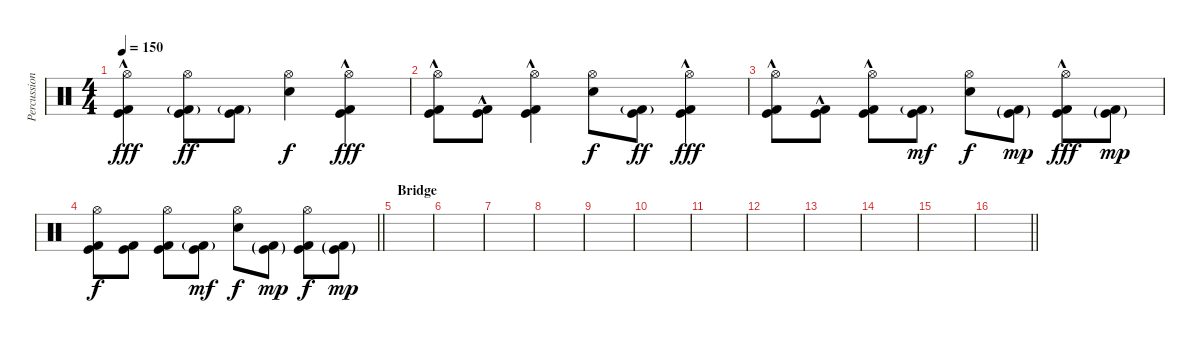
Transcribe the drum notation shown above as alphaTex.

\track ("Percussion" "Percussion") {instrument percussion}
\staff {score}
\articulation defaults
\ts (4 4)
\tempo 150
\clef neutral
\ks c
("Hi-Hat (open)" "Kick (hit) 2"{hac} "Kick (hit)"{hac}).4{dy fff} ("Hi-Hat (open)" "Kick (hit) 2"{g} "Kick (hit)").8{dy ff} ("Kick (hit) 2"{g} "Kick (hit)").8 ("Hi-Hat (open)" "Electric Snare (hit)").4{dy f} ("Hi-Hat (open)" "Kick (hit) 2"{hac} "Kick (hit)"{hac}).4{dy fff} |
("Hi-Hat (open)" "Kick (hit) 2"{hac} "Kick (hit)"{hac}).8 ("Kick (hit) 2"{hac} "Kick (hit)").8 ("Hi-Hat (open)" "Kick (hit) 2"{hac} "Kick (hit)").4 ("Hi-Hat (open)" "Electric Snare (hit)").8{dy f} ("Kick (hit) 2"{g} "Kick (hit)").8{dy ff} ("Hi-Hat (open)" "Kick (hit) 2"{hac} "Kick (hit)"{hac}).4{dy fff} |
("Hi-Hat (open)" "Kick (hit) 2"{hac} "Kick (hit)"{hac}).8 ("Kick (hit) 2"{hac} "Kick (hit)").8 ("Hi-Hat (open)" "Kick (hit) 2"{hac} "Kick (hit)").8 ("Kick (hit) 2"{g} "Kick (hit)").8{dy mf} ("Hi-Hat (open)" "Electric Snare (hit)").8{dy f} ("Kick (hit) 2"{g} "Kick (hit)"{g}).8{dy mp} ("Hi-Hat (open)" "Kick (hit) 2"{hac} "Kick (hit)"{hac}).8{dy fff} ("Kick (hit) 2"{g} "Kick (hit)"{g}).8{dy mp} |
\barLineRight lightlight
("Hi-Hat (open)" "Kick (hit) 2" "Kick (hit)").8{dy f} ("Kick (hit) 2" "Kick (hit)").8 ("Hi-Hat (open)" "Kick (hit) 2" "Kick (hit)").8 ("Kick (hit) 2"{g} "Kick (hit)").8{dy mf} ("Hi-Hat (open)" "Electric Snare (hit)").8{dy f} ("Kick (hit) 2"{g} "Kick (hit)"{g}).8{dy mp} ("Hi-Hat (open)" "Kick (hit) 2" "Kick (hit)").8{dy f} ("Kick (hit) 2"{g} "Kick (hit)"{g}).8{dy mp} |
\section ("" "Bridge")
|
|
|
|
|
|
|
|
|
|
|
\barLineRight lightlight
